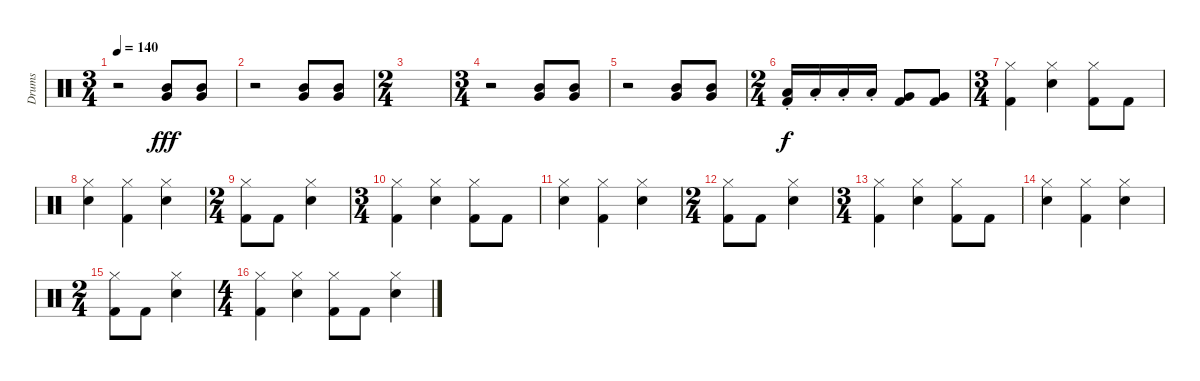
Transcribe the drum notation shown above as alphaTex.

\track ("Drums" "Drums") {instrument percussion}
\staff {score}
\articulation defaults
\ts (3 4)
\tempo 140
\clef neutral
\ks aminor
r.2{dy fff} ("Mid Tom (hit)" "Very Low Tom (hit)").8 ("Mid Tom (hit)" "Very Low Tom (hit)").8 |
r.2 ("Mid Tom (hit)" "Very Low Tom (hit)").8 ("Mid Tom (hit)" "Very Low Tom (hit)").8 |
\ts (2 4)
|
\ts (3 4)
r.2 ("Mid Tom (hit)" "Very Low Tom (hit)").8 ("Mid Tom (hit)" "Very Low Tom (hit)").8 |
r.2 ("Mid Tom (hit)" "Very Low Tom (hit)").8 ("Mid Tom (hit)" "Very Low Tom (hit)").8 |
\ts (2 4)
("Low Tom (hit)"{st} "Kick (hit) 2").16{dy f} "Low Tom (hit)"{st}.16 "Low Tom (hit)"{st}.16 "Low Tom (hit)"{st}.16 ("Very Low Tom (hit)" "Kick (hit) 2").8 ("Very Low Tom (hit)" "Kick (hit) 2").8 |
\ts (3 4)
("Kick (hit) 2" "Hi-Hat (closed)").4 ("Electric Snare (hit)" "Hi-Hat (closed)").4 ("Kick (hit) 2" "Hi-Hat (closed)").8 "Kick (hit) 2".8 |
("Electric Snare (hit)" "Hi-Hat (closed)").4 ("Kick (hit) 2" "Hi-Hat (closed)").4 ("Electric Snare (hit)" "Hi-Hat (closed)").4 |
\ts (2 4)
("Kick (hit) 2" "Hi-Hat (closed)").8 "Kick (hit) 2".8 ("Electric Snare (hit)" "Hi-Hat (closed)").4 |
\ts (3 4)
("Kick (hit) 2" "Hi-Hat (closed)").4 ("Electric Snare (hit)" "Hi-Hat (closed)").4 ("Kick (hit) 2" "Hi-Hat (closed)").8 "Kick (hit) 2".8 |
("Electric Snare (hit)" "Hi-Hat (closed)").4 ("Kick (hit) 2" "Hi-Hat (closed)").4 ("Electric Snare (hit)" "Hi-Hat (closed)").4 |
\ts (2 4)
("Kick (hit) 2" "Hi-Hat (closed)").8 "Kick (hit) 2".8 ("Electric Snare (hit)" "Hi-Hat (closed)").4 |
\ts (3 4)
("Kick (hit) 2" "Hi-Hat (closed)").4 ("Electric Snare (hit)" "Hi-Hat (closed)").4 ("Kick (hit) 2" "Hi-Hat (closed)").8 "Kick (hit) 2".8 |
("Electric Snare (hit)" "Hi-Hat (closed)").4 ("Kick (hit) 2" "Hi-Hat (closed)").4 ("Electric Snare (hit)" "Hi-Hat (closed)").4 |
\ts (2 4)
("Kick (hit) 2" "Hi-Hat (closed)").8 "Kick (hit) 2".8 ("Electric Snare (hit)" "Hi-Hat (closed)").4 |
\ts (4 4)
("Kick (hit) 2" "Hi-Hat (closed)").4 ("Electric Snare (hit)" "Hi-Hat (closed)").4 ("Kick (hit) 2" "Hi-Hat (closed)").8 "Kick (hit) 2".8 ("Electric Snare (hit)" "Hi-Hat (closed)").4
